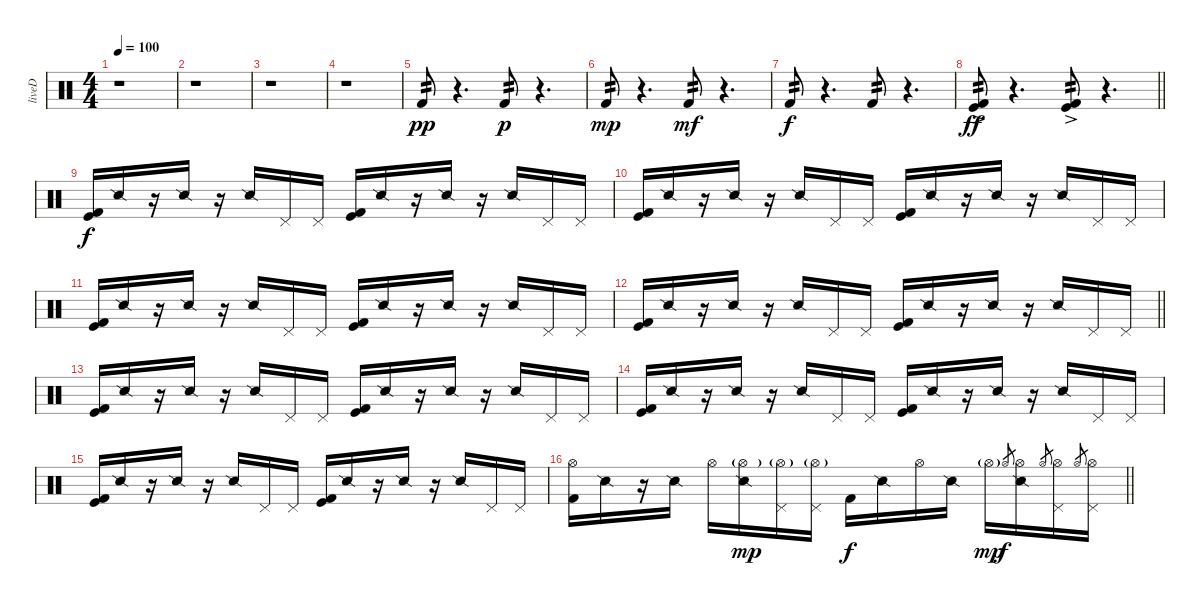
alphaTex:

\track ("liveD" "liveD") {instrument percussion}
\staff {score}
\articulation defaults
\ts (4 4)
\section ("" "")
\tempo 100
\clef neutral
\ks c
r.1{dy pp} |
r.1 |
r.1 |
r.1 |
"Kick (hit) 2".8{tp 2} r.4{d} "Kick (hit) 2".8{tp 2 dy p} r.4{d} |
"Kick (hit) 2".8{tp 2 dy mp} r.4{d} "Kick (hit) 2".8{tp 2 dy mf} r.4{d} |
"Kick (hit) 2".8{tp 2 dy f} r.4{d} "Kick (hit) 2".8{tp 2} r.4{d} |
\barLineRight lightlight
("Kick (hit)"{ac} "Kick (hit) 2"{ac}).8{tp 2 dy ff} r.4{d} ("Kick (hit)"{ac} "Kick (hit) 2"{ac}).8{tp 2} r.4{d} |
\section ("" "")
("Kick (hit)" "Kick (hit) 2").16{dy f} "Snare (side stick) 2".16 r.16 "Snare (side stick) 2".16 r.16 "Snare (side stick) 2".16 "Pedal Hi-Hat (hit)".16 "Pedal Hi-Hat (hit)".16 ("Kick (hit)" "Kick (hit) 2").16 "Snare (side stick) 2".16 r.16 "Snare (side stick) 2".16 r.16 "Snare (side stick) 2".16 "Pedal Hi-Hat (hit)".16 "Pedal Hi-Hat (hit)".16 |
("Kick (hit)" "Kick (hit) 2").16 "Snare (side stick) 2".16 r.16 "Snare (side stick) 2".16 r.16 "Snare (side stick) 2".16 "Pedal Hi-Hat (hit)".16 "Pedal Hi-Hat (hit)".16 ("Kick (hit)" "Kick (hit) 2").16 "Snare (side stick) 2".16 r.16 "Snare (side stick) 2".16 r.16 "Snare (side stick) 2".16 "Pedal Hi-Hat (hit)".16 "Pedal Hi-Hat (hit)".16 |
("Kick (hit)" "Kick (hit) 2").16 "Snare (side stick) 2".16 r.16 "Snare (side stick) 2".16 r.16 "Snare (side stick) 2".16 "Pedal Hi-Hat (hit)".16 "Pedal Hi-Hat (hit)".16 ("Kick (hit)" "Kick (hit) 2").16 "Snare (side stick) 2".16 r.16 "Snare (side stick) 2".16 r.16 "Snare (side stick) 2".16 "Pedal Hi-Hat (hit)".16 "Pedal Hi-Hat (hit)".16 |
\barLineRight lightlight
("Kick (hit)" "Kick (hit) 2").16 "Snare (side stick) 2".16 r.16 "Snare (side stick) 2".16 r.16 "Snare (side stick) 2".16 "Pedal Hi-Hat (hit)".16 "Pedal Hi-Hat (hit)".16 ("Kick (hit)" "Kick (hit) 2").16 "Snare (side stick) 2".16 r.16 "Snare (side stick) 2".16 r.16 "Snare (side stick) 2".16 "Pedal Hi-Hat (hit)".16 "Pedal Hi-Hat (hit)".16 |
("Kick (hit)" "Kick (hit) 2").16 "Snare (side stick) 2".16 r.16 "Snare (side stick) 2".16 r.16 "Snare (side stick) 2".16 "Pedal Hi-Hat (hit)".16 "Pedal Hi-Hat (hit)".16 ("Kick (hit)" "Kick (hit) 2").16 "Snare (side stick) 2".16 r.16 "Snare (side stick) 2".16 r.16 "Snare (side stick) 2".16 "Pedal Hi-Hat (hit)".16 "Pedal Hi-Hat (hit)".16 |
("Kick (hit)" "Kick (hit) 2").16 "Snare (side stick) 2".16 r.16 "Snare (side stick) 2".16 r.16 "Snare (side stick) 2".16 "Pedal Hi-Hat (hit)".16 "Pedal Hi-Hat (hit)".16 ("Kick (hit)" "Kick (hit) 2").16 "Snare (side stick) 2".16 r.16 "Snare (side stick) 2".16 r.16 "Snare (side stick) 2".16 "Pedal Hi-Hat (hit)".16 "Pedal Hi-Hat (hit)".16 |
("Kick (hit)" "Kick (hit) 2").16 "Snare (side stick) 2".16 r.16 "Snare (side stick) 2".16 r.16 "Snare (side stick) 2".16 "Pedal Hi-Hat (hit)".16 "Pedal Hi-Hat (hit)".16 ("Kick (hit)" "Kick (hit) 2").16 "Snare (side stick) 2".16 r.16 "Snare (side stick) 2".16 r.16 "Snare (side stick) 2".16 "Pedal Hi-Hat (hit)".16 "Pedal Hi-Hat (hit)".16 |
\barLineRight lightlight
("Hi-Hat (open)" "Kick (hit) 2").16 "Snare (side stick) 2".16 r.16 "Snare (side stick) 2".16 "Hi-Hat (open)".16 ("Hi-Hat (open)"{g} "Snare (side stick) 2").16{dy mp} ("Hi-Hat (open)"{g} "Pedal Hi-Hat (hit)").16 ("Hi-Hat (open)"{g} "Pedal Hi-Hat (hit)").16 "Kick (hit) 2".16{dy f} "Snare (side stick) 2".16 "Hi-Hat (open)".16 "Snare (side stick) 2".16 "Hi-Hat (open)"{g}.16{dy mp} "Hi-Hat (open)".8{gr dy f} ("Hi-Hat (open)" "Snare (side stick) 2").16 "Hi-Hat (open)".8{gr} ("Hi-Hat (open)" "Pedal Hi-Hat (hit)").16 "Hi-Hat (open)".8{gr} ("Hi-Hat (open)" "Pedal Hi-Hat (hit)").16
